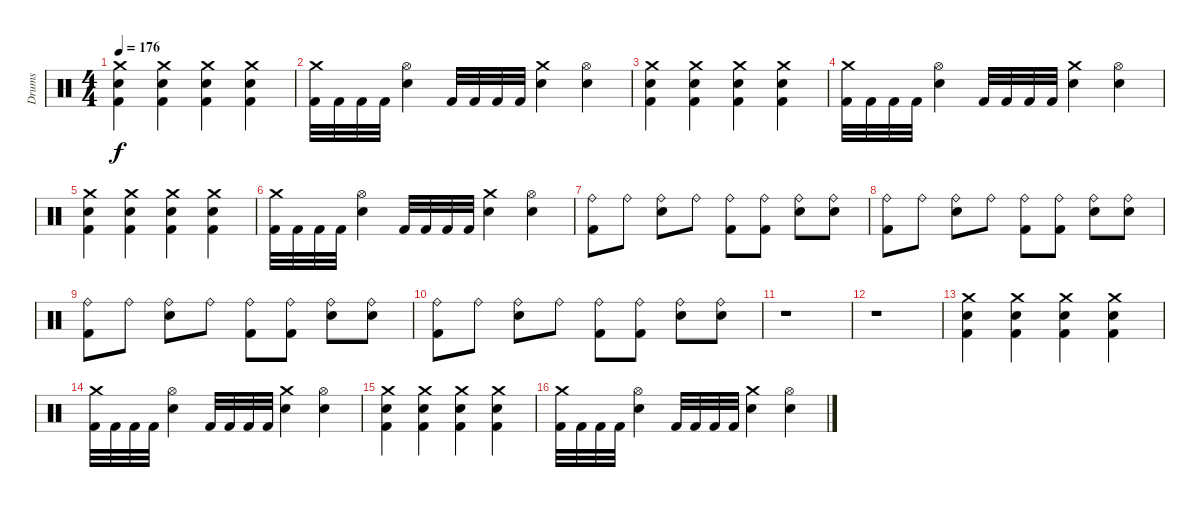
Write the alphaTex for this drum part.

\track ("Drums" "Drums") {instrument percussion}
\staff {score}
\articulation defaults
\ts (4 4)
\tempo 176
\clef neutral
\ks c
("Crash medium (hit)" "Snare (hit) 2" "Kick (hit) 2").4{dy f} ("Crash medium (hit)" "Snare (hit) 2" "Kick (hit) 2").4 ("Crash medium (hit)" "Snare (hit) 2" "Kick (hit) 2").4 ("Crash medium (hit)" "Snare (hit) 2" "Kick (hit) 2").4 |
("Crash medium (hit)" "Kick (hit) 2").32 "Kick (hit) 2".32 "Kick (hit) 2".32 "Kick (hit) 2".32 ("Hi-Hat (open)" "Snare (hit) 2").4 "Kick (hit) 2".32 "Kick (hit) 2".32 "Kick (hit) 2".32 "Kick (hit) 2".32 ("Crash medium (hit)" "Snare (hit) 2").4 ("Hi-Hat (open)" "Snare (hit) 2").4 |
("Crash medium (hit)" "Snare (hit) 2" "Kick (hit) 2").4 ("Crash medium (hit)" "Snare (hit) 2" "Kick (hit) 2").4 ("Crash medium (hit)" "Snare (hit) 2" "Kick (hit) 2").4 ("Crash medium (hit)" "Snare (hit) 2" "Kick (hit) 2").4 |
("Crash medium (hit)" "Kick (hit) 2").32 "Kick (hit) 2".32 "Kick (hit) 2".32 "Kick (hit) 2".32 ("Hi-Hat (open)" "Snare (hit) 2").4 "Kick (hit) 2".32 "Kick (hit) 2".32 "Kick (hit) 2".32 "Kick (hit) 2".32 ("Crash medium (hit)" "Snare (hit) 2").4 ("Hi-Hat (open)" "Snare (hit) 2").4 |
("Crash medium (hit)" "Snare (hit) 2" "Kick (hit) 2").4 ("Crash medium (hit)" "Snare (hit) 2" "Kick (hit) 2").4 ("Crash medium (hit)" "Snare (hit) 2" "Kick (hit) 2").4 ("Crash medium (hit)" "Snare (hit) 2" "Kick (hit) 2").4 |
("Crash medium (hit)" "Kick (hit) 2").32 "Kick (hit) 2".32 "Kick (hit) 2".32 "Kick (hit) 2".32 ("Hi-Hat (open)" "Snare (hit) 2").4 "Kick (hit) 2".32 "Kick (hit) 2".32 "Kick (hit) 2".32 "Kick (hit) 2".32 ("Crash medium (hit)" "Snare (hit) 2").4 ("Hi-Hat (open)" "Snare (hit) 2").4 |
("Ride (bell)" "Kick (hit) 2").8 "Ride (bell)".8 ("Ride (bell)" "Snare (hit) 2").8 "Ride (bell)".8 ("Ride (bell)" "Kick (hit) 2").8 ("Ride (bell)" "Kick (hit) 2").8 ("Ride (bell)" "Snare (hit) 2").8 ("Ride (bell)" "Snare (hit) 2").8 |
("Ride (bell)" "Kick (hit) 2").8 "Ride (bell)".8 ("Ride (bell)" "Snare (hit) 2").8 "Ride (bell)".8 ("Ride (bell)" "Kick (hit) 2").8 ("Ride (bell)" "Kick (hit) 2").8 ("Ride (bell)" "Snare (hit) 2").8 ("Ride (bell)" "Snare (hit) 2").8 |
("Ride (bell)" "Kick (hit) 2").8 "Ride (bell)".8 ("Ride (bell)" "Snare (hit) 2").8 "Ride (bell)".8 ("Ride (bell)" "Kick (hit) 2").8 ("Ride (bell)" "Kick (hit) 2").8 ("Ride (bell)" "Snare (hit) 2").8 ("Ride (bell)" "Snare (hit) 2").8 |
("Ride (bell)" "Kick (hit) 2").8 "Ride (bell)".8 ("Ride (bell)" "Snare (hit) 2").8 "Ride (bell)".8 ("Ride (bell)" "Kick (hit) 2").8 ("Ride (bell)" "Kick (hit) 2").8 ("Ride (bell)" "Snare (hit) 2").8 ("Ride (bell)" "Snare (hit) 2").8 |
r.1 |
r.1 |
("Crash medium (hit)" "Snare (hit) 2" "Kick (hit) 2").4 ("Crash medium (hit)" "Snare (hit) 2" "Kick (hit) 2").4 ("Crash medium (hit)" "Snare (hit) 2" "Kick (hit) 2").4 ("Crash medium (hit)" "Snare (hit) 2" "Kick (hit) 2").4 |
("Crash medium (hit)" "Kick (hit) 2").32 "Kick (hit) 2".32 "Kick (hit) 2".32 "Kick (hit) 2".32 ("Hi-Hat (open)" "Snare (hit) 2").4 "Kick (hit) 2".32 "Kick (hit) 2".32 "Kick (hit) 2".32 "Kick (hit) 2".32 ("Crash medium (hit)" "Snare (hit) 2").4 ("Hi-Hat (open)" "Snare (hit) 2").4 |
("Crash medium (hit)" "Snare (hit) 2" "Kick (hit) 2").4 ("Crash medium (hit)" "Snare (hit) 2" "Kick (hit) 2").4 ("Crash medium (hit)" "Snare (hit) 2" "Kick (hit) 2").4 ("Crash medium (hit)" "Snare (hit) 2" "Kick (hit) 2").4 |
("Crash medium (hit)" "Kick (hit) 2").32 "Kick (hit) 2".32 "Kick (hit) 2".32 "Kick (hit) 2".32 ("Hi-Hat (open)" "Snare (hit) 2").4 "Kick (hit) 2".32 "Kick (hit) 2".32 "Kick (hit) 2".32 "Kick (hit) 2".32 ("Crash medium (hit)" "Snare (hit) 2").4 ("Hi-Hat (open)" "Snare (hit) 2").4
